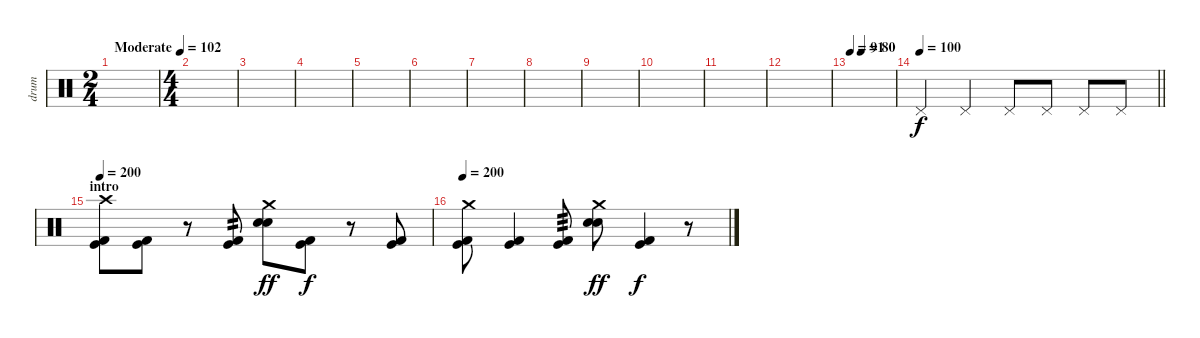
\track ("drum" "drum") {instrument percussion}
\staff {score}
\articulation defaults
\ts (2 4)
\tempo (102 "Moderate")
\clef neutral
\ks c
|
\ts (4 4)
|
|
|
|
|
|
|
|
|
|
|
\tempo 91
\tempo (80 0.25)
|
\tempo 100
\barLineRight lightlight "Pedal Hi-Hat (hit)".4 "Pedal Hi-Hat (hit)".4 "Pedal Hi-Hat (hit)".8 "Pedal Hi-Hat (hit)".8 "Pedal Hi-Hat (hit)".8 "Pedal Hi-Hat (hit)".8
|
\section ("" "intro")
\tempo 200
("Crash high (hit)" "Kick (hit)" "Kick (hit) 2").8 ("Kick (hit)" "Kick (hit) 2").8 r.8 ("Kick (hit)" "Kick (hit) 2").8{tp 2} ("Crash medium (hit)" "Electric Snare (hit)" "Electric Snare (hit)").8{dy ff} ("Kick (hit)" "Kick (hit) 2").8{dy f} r.8 ("Kick (hit)" "Kick (hit) 2").8 |
\tempo 200
("Crash medium (hit)" "Kick (hit)" "Kick (hit) 2").8 ("Kick (hit)" "Kick (hit) 2").4 ("Kick (hit)" "Kick (hit) 2").8{tp 3} ("Crash medium (hit)" "Electric Snare (hit)" "Electric Snare (hit)").8{dy ff} ("Kick (hit)" "Kick (hit) 2").4{dy f} r.8
